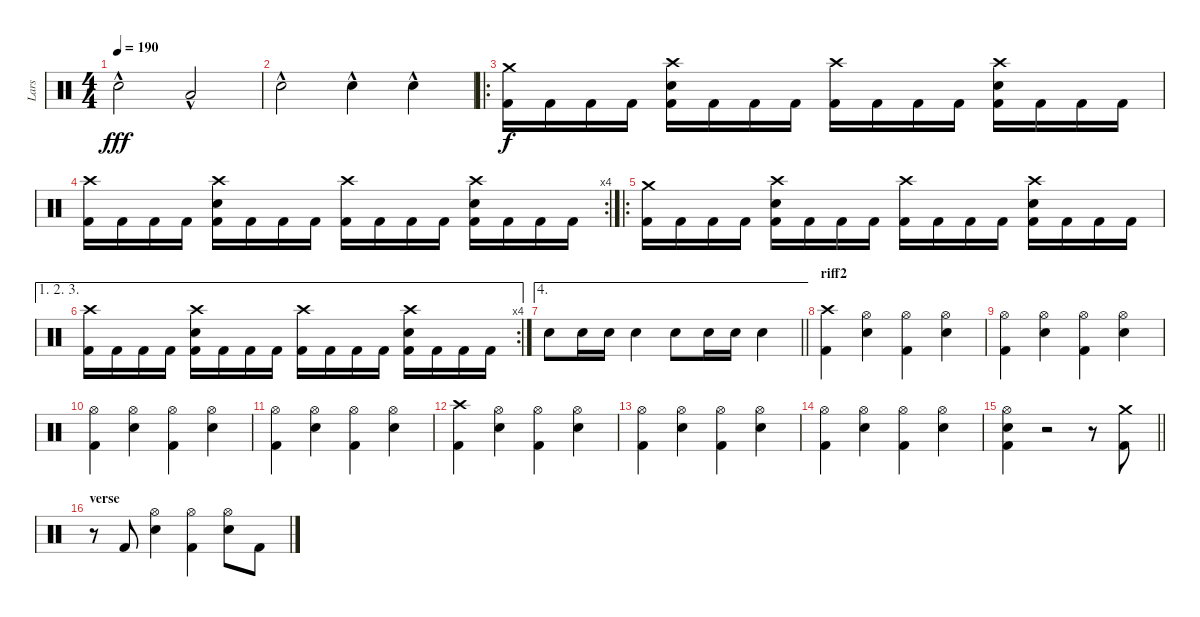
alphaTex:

\track ("Lars" "Lars") {instrument percussion}
\staff {score}
\articulation defaults
\ts (4 4)
\tempo 190
\clef neutral
\ks c "Snare (hit) 2"{hac}.2{dy fff} "Low Tom (hit)"{hac}.2
|
"Snare (hit) 2"{hac}.2 "Snare (hit) 2"{hac}.4 "Snare (hit) 2"{hac}.4 |
\ro
("Crash medium (hit)" "Kick (hit) 2").16{dy f} "Kick (hit) 2".16 "Kick (hit) 2".16 "Kick (hit) 2".16 ("Crash high (hit)" "Snare (hit) 2" "Kick (hit) 2").16 "Kick (hit) 2".16 "Kick (hit) 2".16 "Kick (hit) 2".16 ("Crash high (hit)" "Kick (hit) 2").16 "Kick (hit) 2".16 "Kick (hit) 2".16 "Kick (hit) 2".16 ("Crash high (hit)" "Snare (hit) 2" "Kick (hit) 2").16 "Kick (hit) 2".16 "Kick (hit) 2".16 "Kick (hit) 2".16 |
\rc 4
("Crash high (hit)" "Kick (hit) 2").16 "Kick (hit) 2".16 "Kick (hit) 2".16 "Kick (hit) 2".16 ("Crash high (hit)" "Snare (hit) 2" "Kick (hit) 2").16 "Kick (hit) 2".16 "Kick (hit) 2".16 "Kick (hit) 2".16 ("Crash high (hit)" "Kick (hit) 2").16 "Kick (hit) 2".16 "Kick (hit) 2".16 "Kick (hit) 2".16 ("Crash high (hit)" "Snare (hit) 2" "Kick (hit) 2").16 "Kick (hit) 2".16 "Kick (hit) 2".16 "Kick (hit) 2".16 |
\ro
("Crash medium (hit)" "Kick (hit) 2").16 "Kick (hit) 2".16 "Kick (hit) 2".16 "Kick (hit) 2".16 ("Crash high (hit)" "Snare (hit) 2" "Kick (hit) 2").16 "Kick (hit) 2".16 "Kick (hit) 2".16 "Kick (hit) 2".16 ("Crash high (hit)" "Kick (hit) 2").16 "Kick (hit) 2".16 "Kick (hit) 2".16 "Kick (hit) 2".16 ("Crash high (hit)" "Snare (hit) 2" "Kick (hit) 2").16 "Kick (hit) 2".16 "Kick (hit) 2".16 "Kick (hit) 2".16 |
\ae (1 2 3)
\rc 4
("Crash high (hit)" "Kick (hit) 2").16 "Kick (hit) 2".16 "Kick (hit) 2".16 "Kick (hit) 2".16 ("Crash high (hit)" "Snare (hit) 2" "Kick (hit) 2").16 "Kick (hit) 2".16 "Kick (hit) 2".16 "Kick (hit) 2".16 ("Crash high (hit)" "Kick (hit) 2").16 "Kick (hit) 2".16 "Kick (hit) 2".16 "Kick (hit) 2".16 ("Crash high (hit)" "Snare (hit) 2" "Kick (hit) 2").16 "Kick (hit) 2".16 "Kick (hit) 2".16 "Kick (hit) 2".16 |
\ae 4
\barLineRight lightlight "Snare (hit) 2".8 "Snare (hit) 2".16 "Snare (hit) 2".16 "Snare (hit) 2".4 "Snare (hit) 2".8 "Snare (hit) 2".16 "Snare (hit) 2".16 "Snare (hit) 2".4
|
\section ("" "riff2")
("Crash high (hit)" "Kick (hit) 2").4 ("Hi-Hat (open)" "Snare (hit) 2").4 ("Hi-Hat (open)" "Kick (hit) 2").4 ("Hi-Hat (open)" "Snare (hit) 2").4 |
("Hi-Hat (open)" "Kick (hit) 2").4 ("Hi-Hat (open)" "Snare (hit) 2").4 ("Hi-Hat (open)" "Kick (hit) 2").4 ("Hi-Hat (open)" "Snare (hit) 2").4 |
("Hi-Hat (open)" "Kick (hit) 2").4 ("Hi-Hat (open)" "Snare (hit) 2").4 ("Hi-Hat (open)" "Kick (hit) 2").4 ("Hi-Hat (open)" "Snare (hit) 2").4 |
("Hi-Hat (open)" "Kick (hit) 2").4 ("Hi-Hat (open)" "Snare (hit) 2").4 ("Hi-Hat (open)" "Kick (hit) 2").4 ("Hi-Hat (open)" "Snare (hit) 2").4 |
("Crash high (hit)" "Kick (hit) 2").4 ("Hi-Hat (open)" "Snare (hit) 2").4 ("Hi-Hat (open)" "Kick (hit) 2").4 ("Hi-Hat (open)" "Snare (hit) 2").4 |
("Hi-Hat (open)" "Kick (hit) 2").4 ("Hi-Hat (open)" "Snare (hit) 2").4 ("Hi-Hat (open)" "Kick (hit) 2").4 ("Hi-Hat (open)" "Snare (hit) 2").4 |
("Hi-Hat (open)" "Kick (hit) 2").4 ("Hi-Hat (open)" "Snare (hit) 2").4 ("Hi-Hat (open)" "Kick (hit) 2").4 ("Hi-Hat (open)" "Snare (hit) 2").4 |
\barLineRight lightlight
("Hi-Hat (open)" "Snare (hit) 2" "Kick (hit) 2").4 r.2 r.8 ("Crash medium (hit)" "Kick (hit) 2").8 |
\section ("" "verse")
r.8 "Kick (hit) 2".8 ("Hi-Hat (open)" "Snare (hit) 2").4 ("Hi-Hat (open)" "Kick (hit) 2").4 ("Hi-Hat (open)" "Snare (hit) 2").8 "Kick (hit) 2".8
